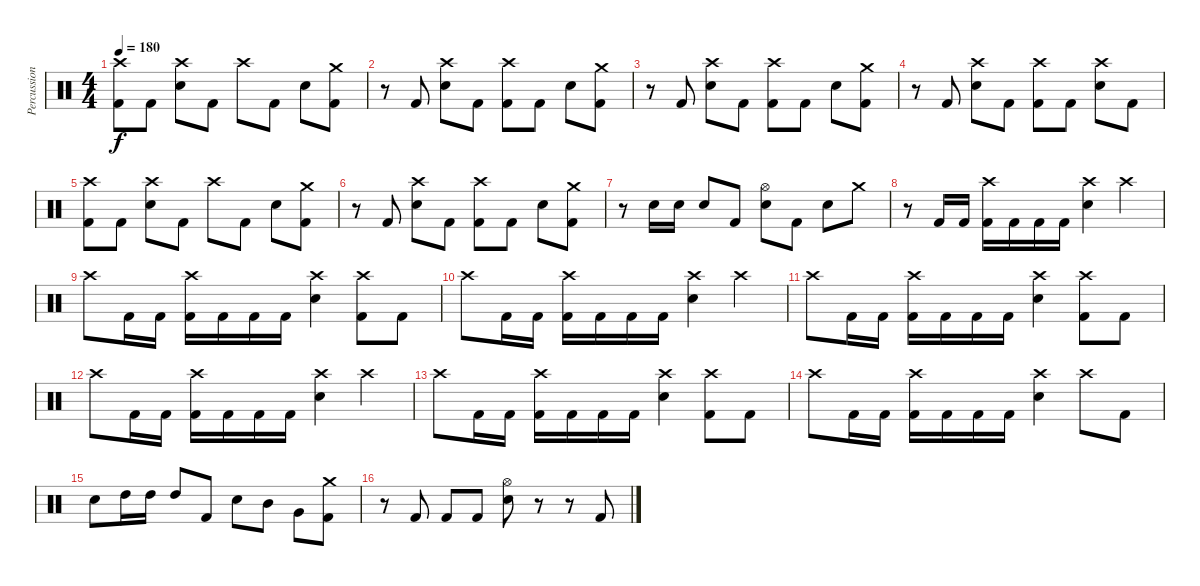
\track ("Percussion" "Percussion") {instrument percussion}
\staff {score}
\articulation defaults
\ts (4 4)
\tempo 180
\clef neutral
\ks c
("Crash high (hit)" "Kick (hit) 2").8{dy f} "Kick (hit) 2".8 ("Crash high (hit)" "Electric Snare (hit)").8 "Kick (hit) 2".8 "Crash high (hit)".8 "Kick (hit) 2".8 "Electric Snare (hit)".8 ("Crash medium (hit)" "Kick (hit) 2").8 |
r.8 "Kick (hit) 2".8 ("Crash high (hit)" "Electric Snare (hit)").8 "Kick (hit) 2".8 ("Crash high (hit)" "Kick (hit) 2").8 "Kick (hit) 2".8 "Electric Snare (hit)".8 ("Crash medium (hit)" "Kick (hit) 2").8 |
r.8 "Kick (hit) 2".8 ("Crash high (hit)" "Electric Snare (hit)").8 "Kick (hit) 2".8 ("Crash high (hit)" "Kick (hit) 2").8 "Kick (hit) 2".8 "Electric Snare (hit)".8 ("Crash medium (hit)" "Kick (hit) 2").8 |
r.8 "Kick (hit) 2".8 ("Crash high (hit)" "Electric Snare (hit)").8 "Kick (hit) 2".8 ("Crash high (hit)" "Kick (hit) 2").8 "Kick (hit) 2".8 ("Crash high (hit)" "Electric Snare (hit)").8 "Kick (hit) 2".8 |
("Crash high (hit)" "Kick (hit) 2").8 "Kick (hit) 2".8 ("Crash high (hit)" "Electric Snare (hit)").8 "Kick (hit) 2".8 "Crash high (hit)".8 "Kick (hit) 2".8 "Electric Snare (hit)".8 ("Crash medium (hit)" "Kick (hit) 2").8 |
r.8 "Kick (hit) 2".8 ("Crash high (hit)" "Electric Snare (hit)").8 "Kick (hit) 2".8 ("Crash high (hit)" "Kick (hit) 2").8 "Kick (hit) 2".8 "Electric Snare (hit)".8 ("Crash medium (hit)" "Kick (hit) 2").8 |
r.8 "Electric Snare (hit)".16 "Electric Snare (hit)".16 "Electric Snare (hit)".8 "Kick (hit) 2".8 ("Hi-Hat (open)" "Electric Snare (hit)").8 "Kick (hit) 2".8 "Electric Snare (hit)".8 "Crash medium (hit)".8 |
r.8 "Kick (hit) 2".16 "Kick (hit) 2".16 ("Crash high (hit)" "Kick (hit) 2").16 "Kick (hit) 2".16 "Kick (hit) 2".16 "Kick (hit) 2".16 ("Crash high (hit)" "Electric Snare (hit)").4 "Crash high (hit)".4 |
"Crash high (hit)".8 "Kick (hit) 2".16 "Kick (hit) 2".16 ("Crash high (hit)" "Kick (hit) 2").16 "Kick (hit) 2".16 "Kick (hit) 2".16 "Kick (hit) 2".16 ("Crash high (hit)" "Electric Snare (hit)").4 ("Kick (hit) 2" "Crash high (hit)").8 "Kick (hit) 2".8 |
"Crash high (hit)".8 "Kick (hit) 2".16 "Kick (hit) 2".16 ("Crash high (hit)" "Kick (hit) 2").16 "Kick (hit) 2".16 "Kick (hit) 2".16 "Kick (hit) 2".16 ("Crash high (hit)" "Electric Snare (hit)").4 "Crash high (hit)".4 |
"Crash high (hit)".8 "Kick (hit) 2".16 "Kick (hit) 2".16 ("Crash high (hit)" "Kick (hit) 2").16 "Kick (hit) 2".16 "Kick (hit) 2".16 "Kick (hit) 2".16 ("Crash high (hit)" "Electric Snare (hit)").4 ("Kick (hit) 2" "Crash high (hit)").8 "Kick (hit) 2".8 |
"Crash high (hit)".8 "Kick (hit) 2".16 "Kick (hit) 2".16 ("Crash high (hit)" "Kick (hit) 2").16 "Kick (hit) 2".16 "Kick (hit) 2".16 "Kick (hit) 2".16 ("Crash high (hit)" "Electric Snare (hit)").4 "Crash high (hit)".4 |
"Crash high (hit)".8 "Kick (hit) 2".16 "Kick (hit) 2".16 ("Crash high (hit)" "Kick (hit) 2").16 "Kick (hit) 2".16 "Kick (hit) 2".16 "Kick (hit) 2".16 ("Crash high (hit)" "Electric Snare (hit)").4 ("Kick (hit) 2" "Crash high (hit)").8 "Kick (hit) 2".8 |
"Crash high (hit)".8 "Kick (hit) 2".16 "Kick (hit) 2".16 ("Crash high (hit)" "Kick (hit) 2").16 "Kick (hit) 2".16 "Kick (hit) 2".16 "Kick (hit) 2".16 ("Crash high (hit)" "Electric Snare (hit)").4 "Crash high (hit)".8 "Kick (hit) 2".8 |
"Electric Snare (hit)".8 "High Tom (hit)".16 "High Tom (hit)".16 "High Tom (hit)".8 "Kick (hit) 2".8 "Electric Snare (hit)".8 "Mid Tom (hit)".8 "Very Low Tom (hit)".8 ("Kick (hit) 2" "Crash medium (hit)").8 |
r.8 "Kick (hit) 2".8 "Kick (hit) 2".8 "Kick (hit) 2".8 ("Hi-Hat (open)" "Electric Snare (hit)").8 r.8 r.8 "Kick (hit) 2".8
